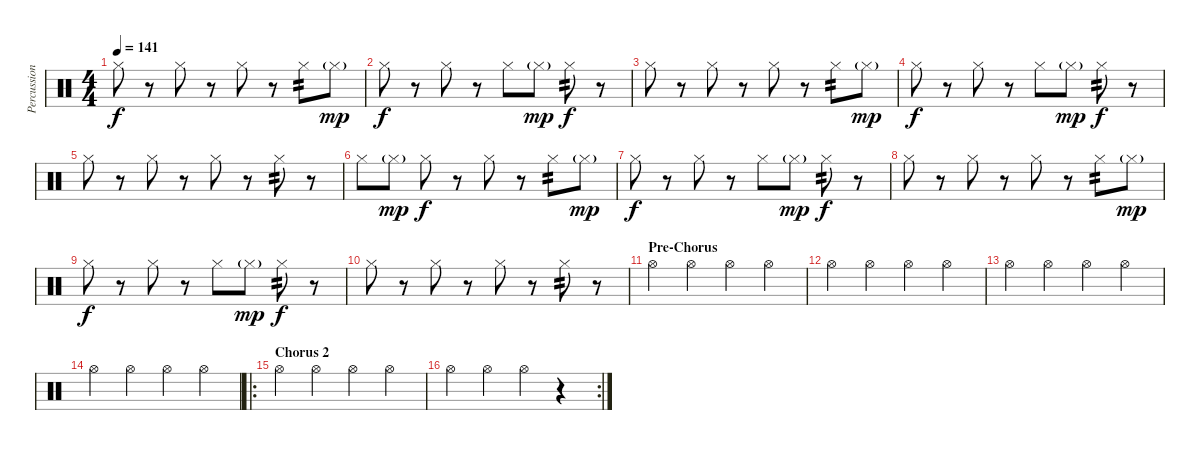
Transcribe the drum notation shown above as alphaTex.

\track ("Percussion" "Percussion") {instrument percussion}
\staff {score}
\articulation defaults
\ts (4 4)
\tempo 141
\clef neutral
\ks c "Hi-Hat (closed)".8{dy f}
r.8 "Hi-Hat (closed)".8 r.8 "Hi-Hat (closed)".8 r.8 "Hi-Hat (closed)".8{tp 2} "Hi-Hat (closed)"{g}.8{dy mp} |
"Hi-Hat (closed)".8{dy f} r.8 "Hi-Hat (closed)".8 r.8 "Hi-Hat (closed)".8 "Hi-Hat (closed)"{g}.8{dy mp} "Hi-Hat (closed)".8{tp 2 dy f} r.8 |
"Hi-Hat (closed)".8 r.8 "Hi-Hat (closed)".8 r.8 "Hi-Hat (closed)".8 r.8 "Hi-Hat (closed)".8{tp 2} "Hi-Hat (closed)"{g}.8{dy mp} |
"Hi-Hat (closed)".8{dy f} r.8 "Hi-Hat (closed)".8 r.8 "Hi-Hat (closed)".8 "Hi-Hat (closed)"{g}.8{dy mp} "Hi-Hat (closed)".8{tp 2 dy f} r.8 |
"Hi-Hat (closed)".8 r.8 "Hi-Hat (closed)".8 r.8 "Hi-Hat (closed)".8 r.8 "Hi-Hat (closed)".8{tp 2} r.8 |
"Hi-Hat (closed)".8 "Hi-Hat (closed)"{g}.8{dy mp} "Hi-Hat (closed)".8{dy f} r.8 "Hi-Hat (closed)".8 r.8 "Hi-Hat (closed)".8{tp 2} "Hi-Hat (closed)"{g}.8{dy mp} |
"Hi-Hat (closed)".8{dy f} r.8 "Hi-Hat (closed)".8 r.8 "Hi-Hat (closed)".8 "Hi-Hat (closed)"{g}.8{dy mp} "Hi-Hat (closed)".8{tp 2 dy f} r.8 |
"Hi-Hat (closed)".8 r.8 "Hi-Hat (closed)".8 r.8 "Hi-Hat (closed)".8 r.8 "Hi-Hat (closed)".8{tp 2} "Hi-Hat (closed)"{g}.8{dy mp} |
"Hi-Hat (closed)".8{dy f} r.8 "Hi-Hat (closed)".8 r.8 "Hi-Hat (closed)".8 "Hi-Hat (closed)"{g}.8{dy mp} "Hi-Hat (closed)".8{tp 2 dy f} r.8 |
"Hi-Hat (closed)".8 r.8 "Hi-Hat (closed)".8 r.8 "Hi-Hat (closed)".8 r.8 "Hi-Hat (closed)".8{tp 2} r.8 |
\section ("" "Pre-Chorus")
"Hi-Hat (open)".4{volume 6} "Hi-Hat (open)".4{volume 6} "Hi-Hat (open)".4{volume 6} "Hi-Hat (open)".4{volume 6} |
"Hi-Hat (open)".4{volume 8} "Hi-Hat (open)".4{volume 8} "Hi-Hat (open)".4{volume 8} "Hi-Hat (open)".4{volume 10} |
"Hi-Hat (open)".4{volume 10} "Hi-Hat (open)".4{volume 11} "Hi-Hat (open)".4{volume 12} "Hi-Hat (open)".4{volume 12} |
"Hi-Hat (open)".4{volume 14} "Hi-Hat (open)".4{volume 14} "Hi-Hat (open)".4{volume 15} "Hi-Hat (open)".4{volume 16} |
\ro
\section ("" "Chorus 2")
"Hi-Hat (open)".4 "Hi-Hat (open)".4 "Hi-Hat (open)".4 "Hi-Hat (open)".4 |
\rc 2 "Hi-Hat (open)".4 "Hi-Hat (open)".4 "Hi-Hat (open)".4
r.4
